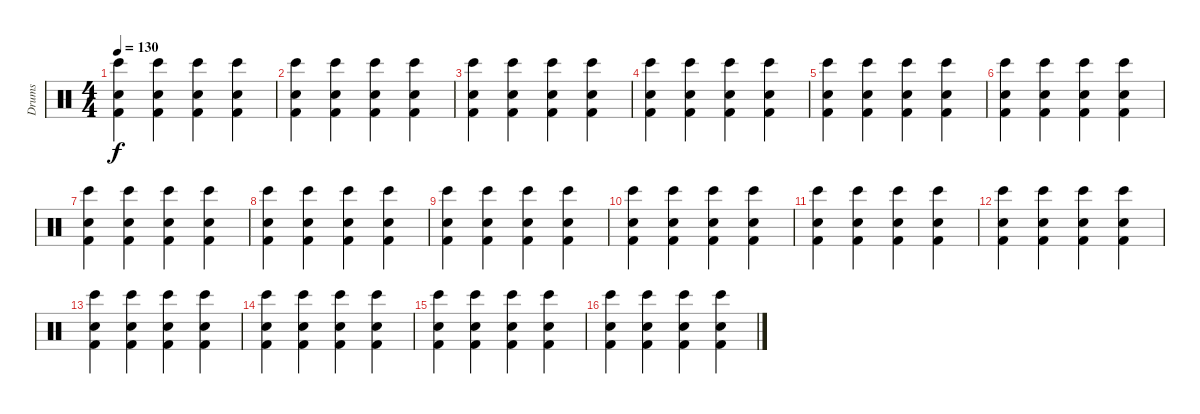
\track ("Drums" "Drums") {instrument percussion}
\staff {score}
\articulation defaults
\ts (4 4)
\tempo 130
\clef neutral
\ks c
("Electric Snare (hit)" "Kick (hit) 2" "Bongo High (hit)").4{dy f} ("Electric Snare (hit)" "Kick (hit) 2" "Bongo High (hit)").4 ("Electric Snare (hit)" "Kick (hit) 2" "Bongo High (hit)").4 ("Electric Snare (hit)" "Kick (hit) 2" "Bongo High (hit)").4 |
("Electric Snare (hit)" "Kick (hit) 2" "Bongo High (hit)").4 ("Electric Snare (hit)" "Kick (hit) 2" "Bongo High (hit)").4 ("Electric Snare (hit)" "Kick (hit) 2" "Bongo High (hit)").4 ("Electric Snare (hit)" "Kick (hit) 2" "Bongo High (hit)").4 |
("Electric Snare (hit)" "Kick (hit) 2" "Bongo High (hit)").4 ("Electric Snare (hit)" "Kick (hit) 2" "Bongo High (hit)").4 ("Electric Snare (hit)" "Kick (hit) 2" "Bongo High (hit)").4 ("Electric Snare (hit)" "Kick (hit) 2" "Bongo High (hit)").4 |
("Electric Snare (hit)" "Kick (hit) 2" "Bongo High (hit)").4 ("Electric Snare (hit)" "Kick (hit) 2" "Bongo High (hit)").4 ("Electric Snare (hit)" "Kick (hit) 2" "Bongo High (hit)").4 ("Electric Snare (hit)" "Kick (hit) 2" "Bongo High (hit)").4 |
("Electric Snare (hit)" "Kick (hit) 2" "Bongo High (hit)").4 ("Electric Snare (hit)" "Kick (hit) 2" "Bongo High (hit)").4 ("Electric Snare (hit)" "Kick (hit) 2" "Bongo High (hit)").4 ("Electric Snare (hit)" "Kick (hit) 2" "Bongo High (hit)").4 |
("Electric Snare (hit)" "Kick (hit) 2" "Bongo High (hit)").4 ("Electric Snare (hit)" "Kick (hit) 2" "Bongo High (hit)").4 ("Electric Snare (hit)" "Kick (hit) 2" "Bongo High (hit)").4 ("Electric Snare (hit)" "Kick (hit) 2" "Bongo High (hit)").4 |
("Electric Snare (hit)" "Kick (hit) 2" "Bongo High (hit)").4 ("Electric Snare (hit)" "Kick (hit) 2" "Bongo High (hit)").4 ("Electric Snare (hit)" "Kick (hit) 2" "Bongo High (hit)").4 ("Electric Snare (hit)" "Kick (hit) 2" "Bongo High (hit)").4 |
("Electric Snare (hit)" "Kick (hit) 2" "Bongo High (hit)").4 ("Electric Snare (hit)" "Kick (hit) 2" "Bongo High (hit)").4 ("Electric Snare (hit)" "Kick (hit) 2" "Bongo High (hit)").4 ("Electric Snare (hit)" "Kick (hit) 2" "Bongo High (hit)").4 |
("Electric Snare (hit)" "Kick (hit) 2" "Bongo High (hit)").4 ("Electric Snare (hit)" "Kick (hit) 2" "Bongo High (hit)").4 ("Electric Snare (hit)" "Kick (hit) 2" "Bongo High (hit)").4 ("Electric Snare (hit)" "Kick (hit) 2" "Bongo High (hit)").4 |
("Electric Snare (hit)" "Kick (hit) 2" "Bongo High (hit)").4 ("Electric Snare (hit)" "Kick (hit) 2" "Bongo High (hit)").4 ("Electric Snare (hit)" "Kick (hit) 2" "Bongo High (hit)").4 ("Electric Snare (hit)" "Kick (hit) 2" "Bongo High (hit)").4 |
("Electric Snare (hit)" "Kick (hit) 2" "Bongo High (hit)").4 ("Electric Snare (hit)" "Kick (hit) 2" "Bongo High (hit)").4 ("Electric Snare (hit)" "Kick (hit) 2" "Bongo High (hit)").4 ("Electric Snare (hit)" "Kick (hit) 2" "Bongo High (hit)").4 |
("Electric Snare (hit)" "Kick (hit) 2" "Bongo High (hit)").4 ("Electric Snare (hit)" "Kick (hit) 2" "Bongo High (hit)").4 ("Electric Snare (hit)" "Kick (hit) 2" "Bongo High (hit)").4 ("Electric Snare (hit)" "Kick (hit) 2" "Bongo High (hit)").4 |
("Electric Snare (hit)" "Kick (hit) 2" "Bongo High (hit)").4 ("Electric Snare (hit)" "Kick (hit) 2" "Bongo High (hit)").4 ("Electric Snare (hit)" "Kick (hit) 2" "Bongo High (hit)").4 ("Electric Snare (hit)" "Kick (hit) 2" "Bongo High (hit)").4 |
("Electric Snare (hit)" "Kick (hit) 2" "Bongo High (hit)").4 ("Electric Snare (hit)" "Kick (hit) 2" "Bongo High (hit)").4 ("Electric Snare (hit)" "Kick (hit) 2" "Bongo High (hit)").4 ("Electric Snare (hit)" "Kick (hit) 2" "Bongo High (hit)").4 |
("Electric Snare (hit)" "Kick (hit) 2" "Bongo High (hit)").4 ("Electric Snare (hit)" "Kick (hit) 2" "Bongo High (hit)").4 ("Electric Snare (hit)" "Kick (hit) 2" "Bongo High (hit)").4 ("Electric Snare (hit)" "Kick (hit) 2" "Bongo High (hit)").4 |
("Electric Snare (hit)" "Kick (hit) 2" "Bongo High (hit)").4 ("Electric Snare (hit)" "Kick (hit) 2" "Bongo High (hit)").4 ("Electric Snare (hit)" "Kick (hit) 2" "Bongo High (hit)").4 ("Electric Snare (hit)" "Kick (hit) 2" "Bongo High (hit)").4
